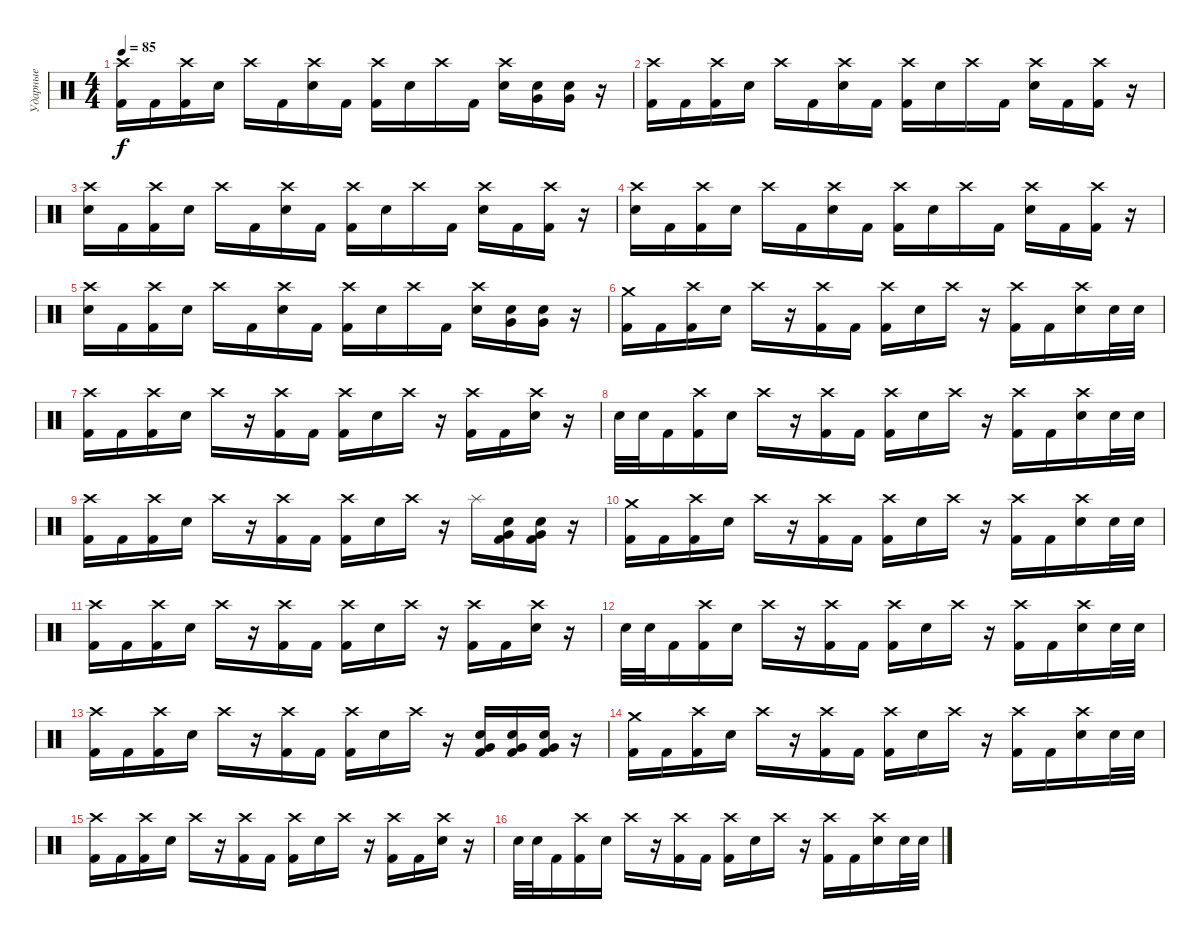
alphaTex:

\track ("Ударные" "Ударные") {instrument percussion}
\staff {score}
\articulation defaults
\ts (4 4)
\tempo 85
\clef neutral
\ks c
("Crash high (hit)" "Kick (hit) 2").16{dy f} "Kick (hit) 2".16 ("Crash high (hit)" "Kick (hit) 2").16 "Electric Snare (hit)".16 "Crash high (hit)".16 "Kick (hit) 2".16 ("Crash high (hit)" "Electric Snare (hit)").16 "Kick (hit) 2".16 ("Crash high (hit)" "Kick (hit) 2").16 "Electric Snare (hit)".16 "Crash high (hit)".16 "Kick (hit) 2".16 ("Crash high (hit)" "Electric Snare (hit)").16 ("Very Low Tom (hit)" "Electric Snare (hit)").16 ("Very Low Tom (hit)" "Electric Snare (hit)").16 r.16 |
("Crash high (hit)" "Kick (hit) 2").16 "Kick (hit) 2".16 ("Crash high (hit)" "Kick (hit) 2").16 "Electric Snare (hit)".16 "Crash high (hit)".16 "Kick (hit) 2".16 ("Crash high (hit)" "Electric Snare (hit)").16 "Kick (hit) 2".16 ("Crash high (hit)" "Kick (hit) 2").16 "Electric Snare (hit)".16 "Crash high (hit)".16 "Kick (hit) 2".16 ("Crash high (hit)" "Electric Snare (hit)").16 "Kick (hit) 2".16 ("Crash high (hit)" "Kick (hit) 2").16 r.16 |
("Crash high (hit)" "Electric Snare (hit)").16 "Kick (hit) 2".16 ("Crash high (hit)" "Kick (hit) 2").16 "Electric Snare (hit)".16 "Crash high (hit)".16 "Kick (hit) 2".16 ("Crash high (hit)" "Electric Snare (hit)").16 "Kick (hit) 2".16 ("Crash high (hit)" "Kick (hit) 2").16 "Electric Snare (hit)".16 "Crash high (hit)".16 "Kick (hit) 2".16 ("Crash high (hit)" "Electric Snare (hit)").16 "Kick (hit) 2".16 ("Crash high (hit)" "Kick (hit) 2").16 r.16 |
("Crash high (hit)" "Electric Snare (hit)").16 "Kick (hit) 2".16 ("Crash high (hit)" "Kick (hit) 2").16 "Electric Snare (hit)".16 "Crash high (hit)".16 "Kick (hit) 2".16 ("Crash high (hit)" "Electric Snare (hit)").16 "Kick (hit) 2".16 ("Crash high (hit)" "Kick (hit) 2").16 "Electric Snare (hit)".16 "Crash high (hit)".16 "Kick (hit) 2".16 ("Crash high (hit)" "Electric Snare (hit)").16 "Kick (hit) 2".16 ("Crash high (hit)" "Kick (hit) 2").16 r.16 |
("Crash high (hit)" "Electric Snare (hit)").16 "Kick (hit) 2".16 ("Crash high (hit)" "Kick (hit) 2").16 "Electric Snare (hit)".16 "Crash high (hit)".16 "Kick (hit) 2".16 ("Crash high (hit)" "Electric Snare (hit)").16 "Kick (hit) 2".16 ("Crash high (hit)" "Kick (hit) 2").16 "Electric Snare (hit)".16 "Crash high (hit)".16 "Kick (hit) 2".16 ("Crash high (hit)" "Electric Snare (hit)").16 ("Very Low Tom (hit)" "Electric Snare (hit)").16 ("Very Low Tom (hit)" "Electric Snare (hit)").16 r.16 |
("Crash medium (hit)" "Kick (hit) 2").16 "Kick (hit) 2".16 ("Crash high (hit)" "Kick (hit) 2").16 "Electric Snare (hit)".16 "Crash high (hit)".16 r.16 ("Crash high (hit)" "Kick (hit) 2").16 "Kick (hit) 2".16 ("Crash high (hit)" "Kick (hit) 2").16 "Electric Snare (hit)".16 "Crash high (hit)".16 r.16 ("Crash high (hit)" "Kick (hit) 2").16 "Kick (hit) 2".16 ("Crash high (hit)" "Electric Snare (hit)").16 "Electric Snare (hit)".32 "Electric Snare (hit)".32 |
("Crash high (hit)" "Kick (hit) 2").16 "Kick (hit) 2".16 ("Crash high (hit)" "Kick (hit) 2").16 "Electric Snare (hit)".16 "Crash high (hit)".16 r.16 ("Crash high (hit)" "Kick (hit) 2").16 "Kick (hit) 2".16 ("Crash high (hit)" "Kick (hit) 2").16 "Electric Snare (hit)".16 "Crash high (hit)".16 r.16 ("Crash high (hit)" "Kick (hit) 2").16 "Kick (hit) 2".16 ("Crash high (hit)" "Electric Snare (hit)").16 r.16 |
"Electric Snare (hit)".32 "Electric Snare (hit)".32 "Kick (hit) 2".16 ("Crash high (hit)" "Kick (hit) 2").16 "Electric Snare (hit)".16 "Crash high (hit)".16 r.16 ("Crash high (hit)" "Kick (hit) 2").16 "Kick (hit) 2".16 ("Crash high (hit)" "Kick (hit) 2").16 "Electric Snare (hit)".16 "Crash high (hit)".16 r.16 ("Crash high (hit)" "Kick (hit) 2").16 "Kick (hit) 2".16 ("Crash high (hit)" "Electric Snare (hit)").16 "Electric Snare (hit)".32 "Electric Snare (hit)".32 |
("Crash high (hit)" "Kick (hit) 2").16 "Kick (hit) 2".16 ("Crash high (hit)" "Kick (hit) 2").16 "Electric Snare (hit)".16 "Crash high (hit)".16 r.16 ("Crash high (hit)" "Kick (hit) 2").16 "Kick (hit) 2".16 ("Crash high (hit)" "Kick (hit) 2").16 "Electric Snare (hit)".16 "Crash high (hit)".16 r.16 "Splash (hit)".16 ("Very Low Tom (hit)" "Electric Snare (hit)" "Kick (hit) 2").16 ("Very Low Tom (hit)" "Electric Snare (hit)" "Kick (hit) 2").16 r.16 |
("Crash medium (hit)" "Kick (hit) 2").16 "Kick (hit) 2".16 ("Crash high (hit)" "Kick (hit) 2").16 "Electric Snare (hit)".16 "Crash high (hit)".16 r.16 ("Crash high (hit)" "Kick (hit) 2").16 "Kick (hit) 2".16 ("Crash high (hit)" "Kick (hit) 2").16 "Electric Snare (hit)".16 "Crash high (hit)".16 r.16 ("Crash high (hit)" "Kick (hit) 2").16 "Kick (hit) 2".16 ("Crash high (hit)" "Electric Snare (hit)").16 "Electric Snare (hit)".32 "Electric Snare (hit)".32 |
("Crash high (hit)" "Kick (hit) 2").16 "Kick (hit) 2".16 ("Crash high (hit)" "Kick (hit) 2").16 "Electric Snare (hit)".16 "Crash high (hit)".16 r.16 ("Crash high (hit)" "Kick (hit) 2").16 "Kick (hit) 2".16 ("Crash high (hit)" "Kick (hit) 2").16 "Electric Snare (hit)".16 "Crash high (hit)".16 r.16 ("Crash high (hit)" "Kick (hit) 2").16 "Kick (hit) 2".16 ("Crash high (hit)" "Electric Snare (hit)").16 r.16 |
"Electric Snare (hit)".32 "Electric Snare (hit)".32 "Kick (hit) 2".16 ("Crash high (hit)" "Kick (hit) 2").16 "Electric Snare (hit)".16 "Crash high (hit)".16 r.16 ("Crash high (hit)" "Kick (hit) 2").16 "Kick (hit) 2".16 ("Crash high (hit)" "Kick (hit) 2").16 "Electric Snare (hit)".16 "Crash high (hit)".16 r.16 ("Crash high (hit)" "Kick (hit) 2").16 "Kick (hit) 2".16 ("Crash high (hit)" "Electric Snare (hit)").16 "Electric Snare (hit)".32 "Electric Snare (hit)".32 |
("Crash high (hit)" "Kick (hit) 2").16 "Kick (hit) 2".16 ("Crash high (hit)" "Kick (hit) 2").16 "Electric Snare (hit)".16 "Crash high (hit)".16 r.16 ("Crash high (hit)" "Kick (hit) 2").16 "Kick (hit) 2".16 ("Crash high (hit)" "Kick (hit) 2").16 "Electric Snare (hit)".16 "Crash high (hit)".16 r.16 ("Very Low Tom (hit)" "Electric Snare (hit)" "Kick (hit) 2").16 ("Very Low Tom (hit)" "Electric Snare (hit)" "Kick (hit) 2").16 ("Very Low Tom (hit)" "Electric Snare (hit)" "Kick (hit) 2").16 r.16 |
("Crash medium (hit)" "Kick (hit) 2").16 "Kick (hit) 2".16 ("Crash high (hit)" "Kick (hit) 2").16 "Electric Snare (hit)".16 "Crash high (hit)".16 r.16 ("Crash high (hit)" "Kick (hit) 2").16 "Kick (hit) 2".16 ("Crash high (hit)" "Kick (hit) 2").16 "Electric Snare (hit)".16 "Crash high (hit)".16 r.16 ("Crash high (hit)" "Kick (hit) 2").16 "Kick (hit) 2".16 ("Crash high (hit)" "Electric Snare (hit)").16 "Electric Snare (hit)".32 "Electric Snare (hit)".32 |
("Crash high (hit)" "Kick (hit) 2").16 "Kick (hit) 2".16 ("Crash high (hit)" "Kick (hit) 2").16 "Electric Snare (hit)".16 "Crash high (hit)".16 r.16 ("Crash high (hit)" "Kick (hit) 2").16 "Kick (hit) 2".16 ("Crash high (hit)" "Kick (hit) 2").16 "Electric Snare (hit)".16 "Crash high (hit)".16 r.16 ("Crash high (hit)" "Kick (hit) 2").16 "Kick (hit) 2".16 ("Crash high (hit)" "Electric Snare (hit)").16 r.16 |
"Electric Snare (hit)".32 "Electric Snare (hit)".32 "Kick (hit) 2".16 ("Crash high (hit)" "Kick (hit) 2").16 "Electric Snare (hit)".16 "Crash high (hit)".16 r.16 ("Crash high (hit)" "Kick (hit) 2").16 "Kick (hit) 2".16 ("Crash high (hit)" "Kick (hit) 2").16 "Electric Snare (hit)".16 "Crash high (hit)".16 r.16 ("Crash high (hit)" "Kick (hit) 2").16 "Kick (hit) 2".16 ("Crash high (hit)" "Electric Snare (hit)").16 "Electric Snare (hit)".32 "Electric Snare (hit)".32
